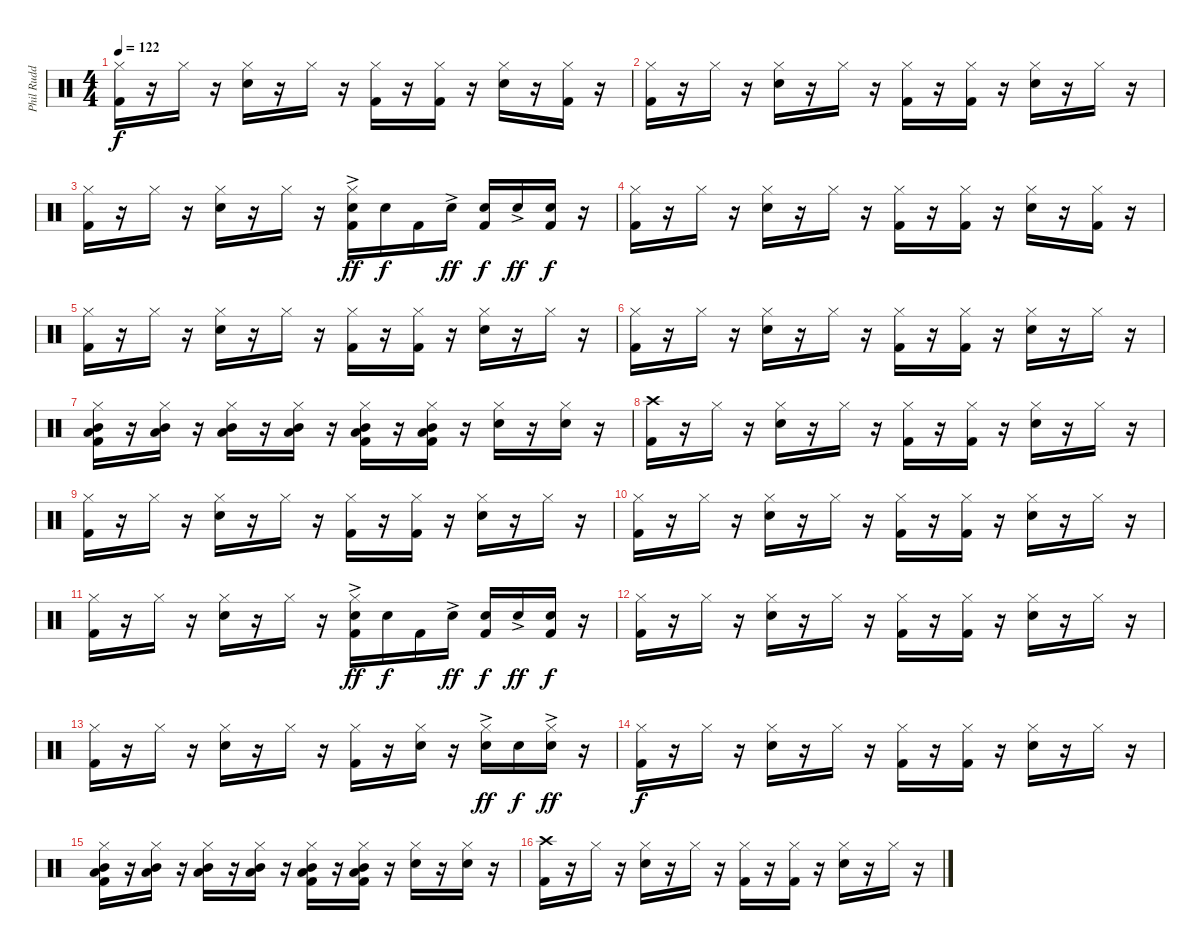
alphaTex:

\track ("Phil Rudd" "Phil Rudd") {instrument percussion}
\staff {score}
\articulation defaults
\ts (4 4)
\tempo 122
\clef neutral
\ks c
("Hi-Hat (closed)" "Kick (hit) 2").16{dy f} r.16 "Hi-Hat (closed)".16 r.16 ("Hi-Hat (closed)" "Snare (hit) 2").16 r.16 "Hi-Hat (closed)".16 r.16 ("Hi-Hat (closed)" "Kick (hit) 2").16 r.16 ("Hi-Hat (closed)" "Kick (hit) 2").16 r.16 ("Hi-Hat (closed)" "Snare (hit) 2").16 r.16 ("Hi-Hat (closed)" "Kick (hit) 2").16 r.16 |
("Hi-Hat (closed)" "Kick (hit) 2").16 r.16 "Hi-Hat (closed)".16 r.16 ("Hi-Hat (closed)" "Snare (hit) 2").16 r.16 "Hi-Hat (closed)".16 r.16 ("Hi-Hat (closed)" "Kick (hit) 2").16 r.16 ("Hi-Hat (closed)" "Kick (hit) 2").16 r.16 ("Hi-Hat (closed)" "Snare (hit) 2").16 r.16 "Hi-Hat (closed)".16 r.16 |
("Hi-Hat (closed)" "Kick (hit) 2").16 r.16 "Hi-Hat (closed)".16 r.16 ("Hi-Hat (closed)" "Snare (hit) 2").16 r.16 "Hi-Hat (closed)".16 r.16 ("Hi-Hat (closed)" "Snare (hit) 2"{ac} "Kick (hit) 2").16{dy ff} "Snare (hit) 2".16{dy f} "Kick (hit) 2".16 "Snare (hit) 2"{ac}.16{dy ff} ("Snare (hit) 2" "Kick (hit) 2").16{dy f} "Snare (hit) 2"{ac}.16{dy ff} ("Snare (hit) 2" "Kick (hit) 2").16{dy f} r.16 |
("Hi-Hat (closed)" "Kick (hit) 2").16 r.16 "Hi-Hat (closed)".16 r.16 ("Hi-Hat (closed)" "Snare (hit) 2").16 r.16 "Hi-Hat (closed)".16 r.16 ("Hi-Hat (closed)" "Kick (hit) 2").16 r.16 ("Hi-Hat (closed)" "Kick (hit) 2").16 r.16 ("Hi-Hat (closed)" "Snare (hit) 2").16 r.16 ("Hi-Hat (closed)" "Kick (hit) 2").16 r.16 |
("Hi-Hat (closed)" "Kick (hit) 2").16 r.16 "Hi-Hat (closed)".16 r.16 ("Hi-Hat (closed)" "Snare (hit) 2").16 r.16 "Hi-Hat (closed)".16 r.16 ("Hi-Hat (closed)" "Kick (hit) 2").16 r.16 ("Hi-Hat (closed)" "Kick (hit) 2").16 r.16 ("Hi-Hat (closed)" "Snare (hit) 2").16 r.16 "Hi-Hat (closed)".16 r.16 |
("Hi-Hat (closed)" "Kick (hit) 2").16 r.16 "Hi-Hat (closed)".16 r.16 ("Hi-Hat (closed)" "Snare (hit) 2").16 r.16 "Hi-Hat (closed)".16 r.16 ("Hi-Hat (closed)" "Kick (hit) 2").16 r.16 ("Hi-Hat (closed)" "Kick (hit) 2").16 r.16 ("Hi-Hat (closed)" "Snare (hit) 2").16 r.16 "Hi-Hat (closed)".16 r.16 |
("Hi-Hat (closed)" "Mid Tom (hit)" "Low Tom (hit)" "Kick (hit) 2").16 r.16 ("Hi-Hat (closed)" "Mid Tom (hit)" "Low Tom (hit)").16 r.16 ("Hi-Hat (closed)" "Mid Tom (hit)" "Low Tom (hit)").16 r.16 ("Hi-Hat (closed)" "Mid Tom (hit)" "Low Tom (hit)").16 r.16 ("Hi-Hat (closed)" "Mid Tom (hit)" "Low Tom (hit)" "Kick (hit) 2").16 r.16 ("Hi-Hat (closed)" "Mid Tom (hit)" "Low Tom (hit)" "Kick (hit) 2").16 r.16 ("Hi-Hat (closed)" "Snare (hit) 2").16 r.16 ("Hi-Hat (closed)" "Snare (hit) 2").16 r.16 |
("Crash high (hit)" "Kick (hit) 2").16 r.16 "Hi-Hat (closed)".16 r.16 ("Hi-Hat (closed)" "Snare (hit) 2").16 r.16 "Hi-Hat (closed)".16 r.16 ("Hi-Hat (closed)" "Kick (hit) 2").16 r.16 ("Hi-Hat (closed)" "Kick (hit) 2").16 r.16 ("Hi-Hat (closed)" "Snare (hit) 2").16 r.16 "Hi-Hat (closed)".16 r.16 |
("Hi-Hat (closed)" "Kick (hit) 2").16 r.16 "Hi-Hat (closed)".16 r.16 ("Hi-Hat (closed)" "Snare (hit) 2").16 r.16 "Hi-Hat (closed)".16 r.16 ("Hi-Hat (closed)" "Kick (hit) 2").16 r.16 ("Hi-Hat (closed)" "Kick (hit) 2").16 r.16 ("Hi-Hat (closed)" "Snare (hit) 2").16 r.16 "Hi-Hat (closed)".16 r.16 |
("Hi-Hat (closed)" "Kick (hit) 2").16 r.16 "Hi-Hat (closed)".16 r.16 ("Hi-Hat (closed)" "Snare (hit) 2").16 r.16 "Hi-Hat (closed)".16 r.16 ("Hi-Hat (closed)" "Kick (hit) 2").16 r.16 ("Hi-Hat (closed)" "Kick (hit) 2").16 r.16 ("Hi-Hat (closed)" "Snare (hit) 2").16 r.16 "Hi-Hat (closed)".16 r.16 |
("Hi-Hat (closed)" "Kick (hit) 2").16 r.16 "Hi-Hat (closed)".16 r.16 ("Hi-Hat (closed)" "Snare (hit) 2").16 r.16 "Hi-Hat (closed)".16 r.16 ("Hi-Hat (closed)" "Snare (hit) 2"{ac} "Kick (hit) 2").16{dy ff} "Snare (hit) 2".16{dy f} "Kick (hit) 2".16 "Snare (hit) 2"{ac}.16{dy ff} ("Snare (hit) 2" "Kick (hit) 2").16{dy f} "Snare (hit) 2"{ac}.16{dy ff} ("Snare (hit) 2" "Kick (hit) 2").16{dy f} r.16 |
("Hi-Hat (closed)" "Kick (hit) 2").16 r.16 "Hi-Hat (closed)".16 r.16 ("Hi-Hat (closed)" "Snare (hit) 2").16 r.16 "Hi-Hat (closed)".16 r.16 ("Hi-Hat (closed)" "Kick (hit) 2").16 r.16 ("Hi-Hat (closed)" "Kick (hit) 2").16 r.16 ("Hi-Hat (closed)" "Snare (hit) 2").16 r.16 "Hi-Hat (closed)".16 r.16 |
("Hi-Hat (closed)" "Kick (hit) 2").16 r.16 "Hi-Hat (closed)".16 r.16 ("Hi-Hat (closed)" "Snare (hit) 2").16 r.16 "Hi-Hat (closed)".16 r.16 ("Hi-Hat (closed)" "Kick (hit) 2").16 r.16 ("Hi-Hat (closed)" "Snare (hit) 2").16 r.16 ("Hi-Hat (closed)" "Snare (hit) 2"{ac}).16{dy ff} "Snare (hit) 2".16{dy f} ("Hi-Hat (closed)" "Snare (hit) 2"{ac}).16{dy ff} r.16 |
("Hi-Hat (closed)" "Kick (hit) 2").16{dy f} r.16 "Hi-Hat (closed)".16 r.16 ("Hi-Hat (closed)" "Snare (hit) 2").16 r.16 "Hi-Hat (closed)".16 r.16 ("Hi-Hat (closed)" "Kick (hit) 2").16 r.16 ("Hi-Hat (closed)" "Kick (hit) 2").16 r.16 ("Hi-Hat (closed)" "Snare (hit) 2").16 r.16 "Hi-Hat (closed)".16 r.16 |
("Hi-Hat (closed)" "Mid Tom (hit)" "Low Tom (hit)" "Kick (hit) 2").16 r.16 ("Hi-Hat (closed)" "Mid Tom (hit)" "Low Tom (hit)").16 r.16 ("Hi-Hat (closed)" "Mid Tom (hit)" "Low Tom (hit)").16 r.16 ("Hi-Hat (closed)" "Mid Tom (hit)" "Low Tom (hit)").16 r.16 ("Hi-Hat (closed)" "Mid Tom (hit)" "Low Tom (hit)" "Kick (hit) 2").16 r.16 ("Hi-Hat (closed)" "Mid Tom (hit)" "Low Tom (hit)" "Kick (hit) 2").16 r.16 ("Hi-Hat (closed)" "Snare (hit) 2").16 r.16 ("Hi-Hat (closed)" "Snare (hit) 2").16 r.16 |
("Crash high (hit)" "Kick (hit) 2").16 r.16 "Hi-Hat (closed)".16 r.16 ("Hi-Hat (closed)" "Snare (hit) 2").16 r.16 "Hi-Hat (closed)".16 r.16 ("Hi-Hat (closed)" "Kick (hit) 2").16 r.16 ("Hi-Hat (closed)" "Kick (hit) 2").16 r.16 ("Hi-Hat (closed)" "Snare (hit) 2").16 r.16 "Hi-Hat (closed)".16 r.16
